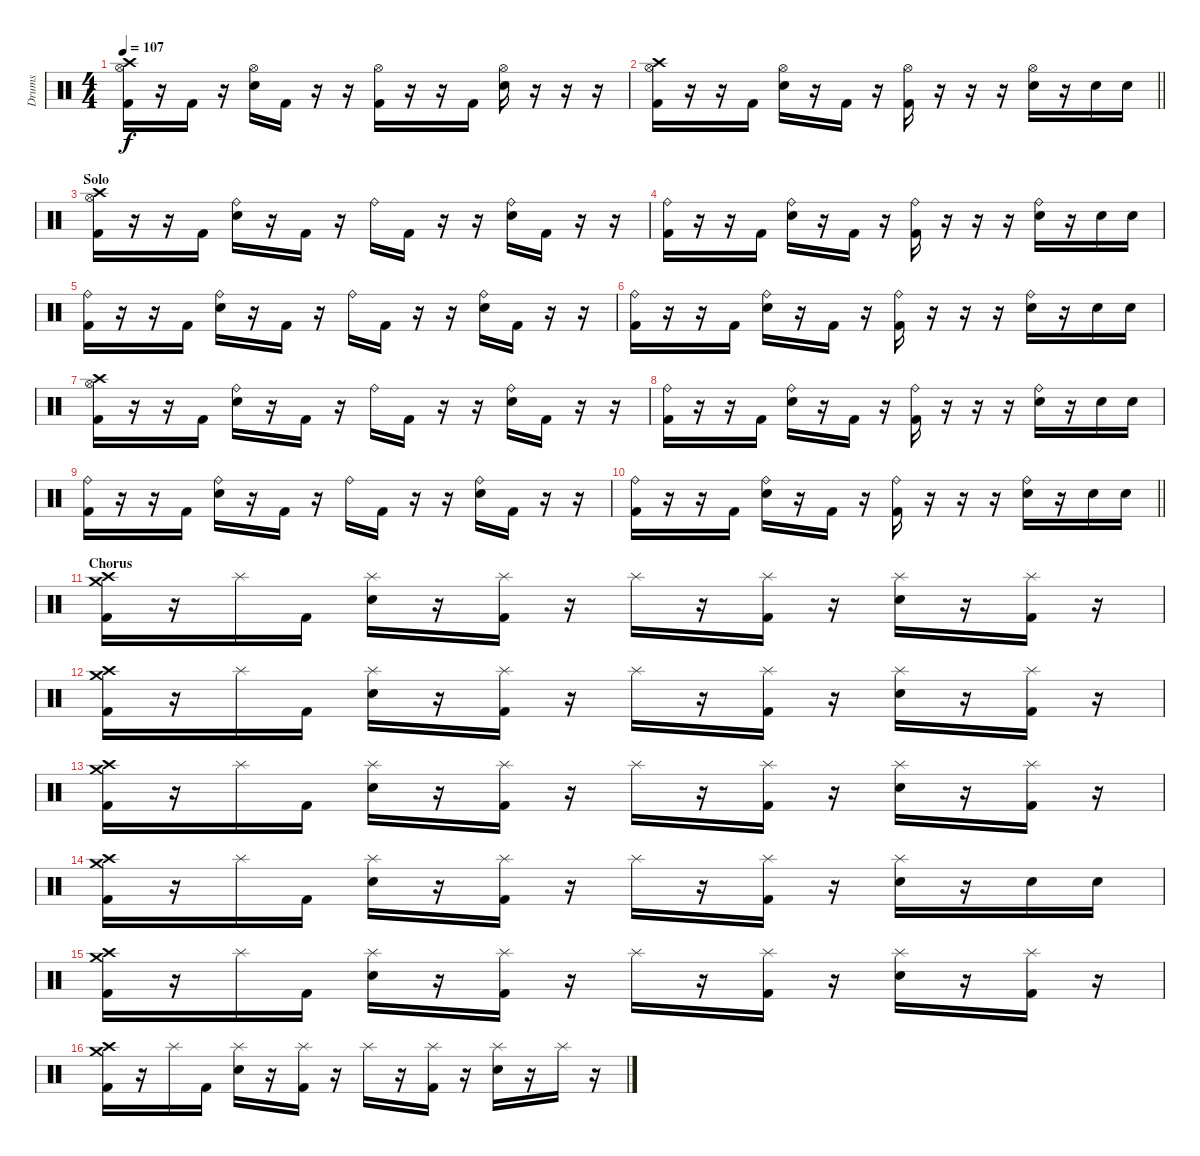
\track ("Drums" "Drums") {instrument percussion}
\staff {score}
\articulation defaults
\ts (4 4)
\tempo 107
\clef neutral
\ks c
("Crash high (hit)" "Hi-Hat (open)" "Kick (hit) 2").16{dy f} r.16 "Kick (hit) 2".16 r.16 ("Hi-Hat (open)" "Electric Snare (hit)").16 "Kick (hit) 2".16 r.16 r.16 ("Hi-Hat (open)" "Kick (hit) 2").16 r.16 r.16 "Kick (hit) 2".16 ("Hi-Hat (open)" "Electric Snare (hit)").16 r.16 r.16 r.16 |
\barLineRight lightlight
("Crash high (hit)" "Hi-Hat (open)" "Kick (hit) 2").16 r.16 r.16 "Kick (hit) 2".16 ("Hi-Hat (open)" "Electric Snare (hit)").16 r.16 "Kick (hit) 2".16 r.16 ("Hi-Hat (open)" "Kick (hit) 2").16 r.16 r.16 r.16 ("Hi-Hat (open)" "Electric Snare (hit)").16 r.16 "Electric Snare (hit)".16 "Electric Snare (hit)".16 |
\section ("" "Solo")
("Crash high (hit)" "Hi-Hat (open)" "Kick (hit) 2").16 r.16 r.16 "Kick (hit) 2".16 ("Ride (bell)" "Electric Snare (hit)").16 r.16 "Kick (hit) 2".16 r.16 "Ride (bell)".16 "Kick (hit) 2".16 r.16 r.16 ("Ride (bell)" "Electric Snare (hit)").16 "Kick (hit) 2".16 r.16 r.16 |
("Ride (bell)" "Kick (hit) 2").16 r.16 r.16 "Kick (hit) 2".16 ("Ride (bell)" "Electric Snare (hit)").16 r.16 "Kick (hit) 2".16 r.16 ("Ride (bell)" "Kick (hit) 2").16 r.16 r.16 r.16 ("Ride (bell)" "Electric Snare (hit)").16 r.16 "Electric Snare (hit)".16 "Electric Snare (hit)".16 |
("Ride (bell)" "Kick (hit) 2").16 r.16 r.16 "Kick (hit) 2".16 ("Ride (bell)" "Electric Snare (hit)").16 r.16 "Kick (hit) 2".16 r.16 "Ride (bell)".16 "Kick (hit) 2".16 r.16 r.16 ("Ride (bell)" "Electric Snare (hit)").16 "Kick (hit) 2".16 r.16 r.16 |
("Ride (bell)" "Kick (hit) 2").16 r.16 r.16 "Kick (hit) 2".16 ("Ride (bell)" "Electric Snare (hit)").16 r.16 "Kick (hit) 2".16 r.16 ("Ride (bell)" "Kick (hit) 2").16 r.16 r.16 r.16 ("Ride (bell)" "Electric Snare (hit)").16 r.16 "Electric Snare (hit)".16 "Electric Snare (hit)".16 |
("Crash high (hit)" "Hi-Hat (open)" "Kick (hit) 2").16 r.16 r.16 "Kick (hit) 2".16 ("Ride (bell)" "Electric Snare (hit)").16 r.16 "Kick (hit) 2".16 r.16 "Ride (bell)".16 "Kick (hit) 2".16 r.16 r.16 ("Ride (bell)" "Electric Snare (hit)").16 "Kick (hit) 2".16 r.16 r.16 |
("Ride (bell)" "Kick (hit) 2").16 r.16 r.16 "Kick (hit) 2".16 ("Ride (bell)" "Electric Snare (hit)").16 r.16 "Kick (hit) 2".16 r.16 ("Ride (bell)" "Kick (hit) 2").16 r.16 r.16 r.16 ("Ride (bell)" "Electric Snare (hit)").16 r.16 "Electric Snare (hit)".16 "Electric Snare (hit)".16 |
("Ride (bell)" "Kick (hit) 2").16 r.16 r.16 "Kick (hit) 2".16 ("Ride (bell)" "Electric Snare (hit)").16 r.16 "Kick (hit) 2".16 r.16 "Ride (bell)".16 "Kick (hit) 2".16 r.16 r.16 ("Ride (bell)" "Electric Snare (hit)").16 "Kick (hit) 2".16 r.16 r.16 |
\barLineRight lightlight
("Ride (bell)" "Kick (hit) 2").16 r.16 r.16 "Kick (hit) 2".16 ("Ride (bell)" "Electric Snare (hit)").16 r.16 "Kick (hit) 2".16 r.16 ("Ride (bell)" "Kick (hit) 2").16 r.16 r.16 r.16 ("Ride (bell)" "Electric Snare (hit)").16 r.16 "Electric Snare (hit)".16 "Electric Snare (hit)".16 |
\section ("" "Chorus")
("Crash medium (hit)" "Crash high (hit)" "Kick (hit) 2").16 r.16 "Splash (hit)".16 "Kick (hit) 2".16 ("Splash (hit)" "Electric Snare (hit)").16 r.16 ("Splash (hit)" "Kick (hit) 2").16 r.16 "Splash (hit)".16 r.16 ("Splash (hit)" "Kick (hit) 2").16 r.16 ("Splash (hit)" "Electric Snare (hit)").16 r.16 ("Splash (hit)" "Kick (hit) 2").16 r.16 |
("Crash medium (hit)" "Crash high (hit)" "Kick (hit) 2").16 r.16 "Splash (hit)".16 "Kick (hit) 2".16 ("Splash (hit)" "Electric Snare (hit)").16 r.16 ("Splash (hit)" "Kick (hit) 2").16 r.16 "Splash (hit)".16 r.16 ("Splash (hit)" "Kick (hit) 2").16 r.16 ("Splash (hit)" "Electric Snare (hit)").16 r.16 ("Splash (hit)" "Kick (hit) 2").16 r.16 |
("Crash medium (hit)" "Crash high (hit)" "Kick (hit) 2").16 r.16 "Splash (hit)".16 "Kick (hit) 2".16 ("Splash (hit)" "Electric Snare (hit)").16 r.16 ("Splash (hit)" "Kick (hit) 2").16 r.16 "Splash (hit)".16 r.16 ("Splash (hit)" "Kick (hit) 2").16 r.16 ("Splash (hit)" "Electric Snare (hit)").16 r.16 ("Splash (hit)" "Kick (hit) 2").16 r.16 |
("Crash medium (hit)" "Crash high (hit)" "Kick (hit) 2").16 r.16 "Splash (hit)".16 "Kick (hit) 2".16 ("Splash (hit)" "Electric Snare (hit)").16 r.16 ("Splash (hit)" "Kick (hit) 2").16 r.16 "Splash (hit)".16 r.16 ("Splash (hit)" "Kick (hit) 2").16 r.16 ("Splash (hit)" "Electric Snare (hit)").16 r.16 "Electric Snare (hit)".16 "Electric Snare (hit)".16 |
("Crash medium (hit)" "Crash high (hit)" "Kick (hit) 2").16 r.16 "Splash (hit)".16 "Kick (hit) 2".16 ("Splash (hit)" "Electric Snare (hit)").16 r.16 ("Splash (hit)" "Kick (hit) 2").16 r.16 "Splash (hit)".16 r.16 ("Splash (hit)" "Kick (hit) 2").16 r.16 ("Splash (hit)" "Electric Snare (hit)").16 r.16 ("Splash (hit)" "Kick (hit) 2").16 r.16 |
("Crash medium (hit)" "Crash high (hit)" "Kick (hit) 2").16 r.16 "Splash (hit)".16 "Kick (hit) 2".16 ("Splash (hit)" "Electric Snare (hit)").16 r.16 ("Splash (hit)" "Kick (hit) 2").16 r.16 "Splash (hit)".16 r.16 ("Splash (hit)" "Kick (hit) 2").16 r.16 ("Splash (hit)" "Electric Snare (hit)").16 r.16 "Splash (hit)".16 r.16
